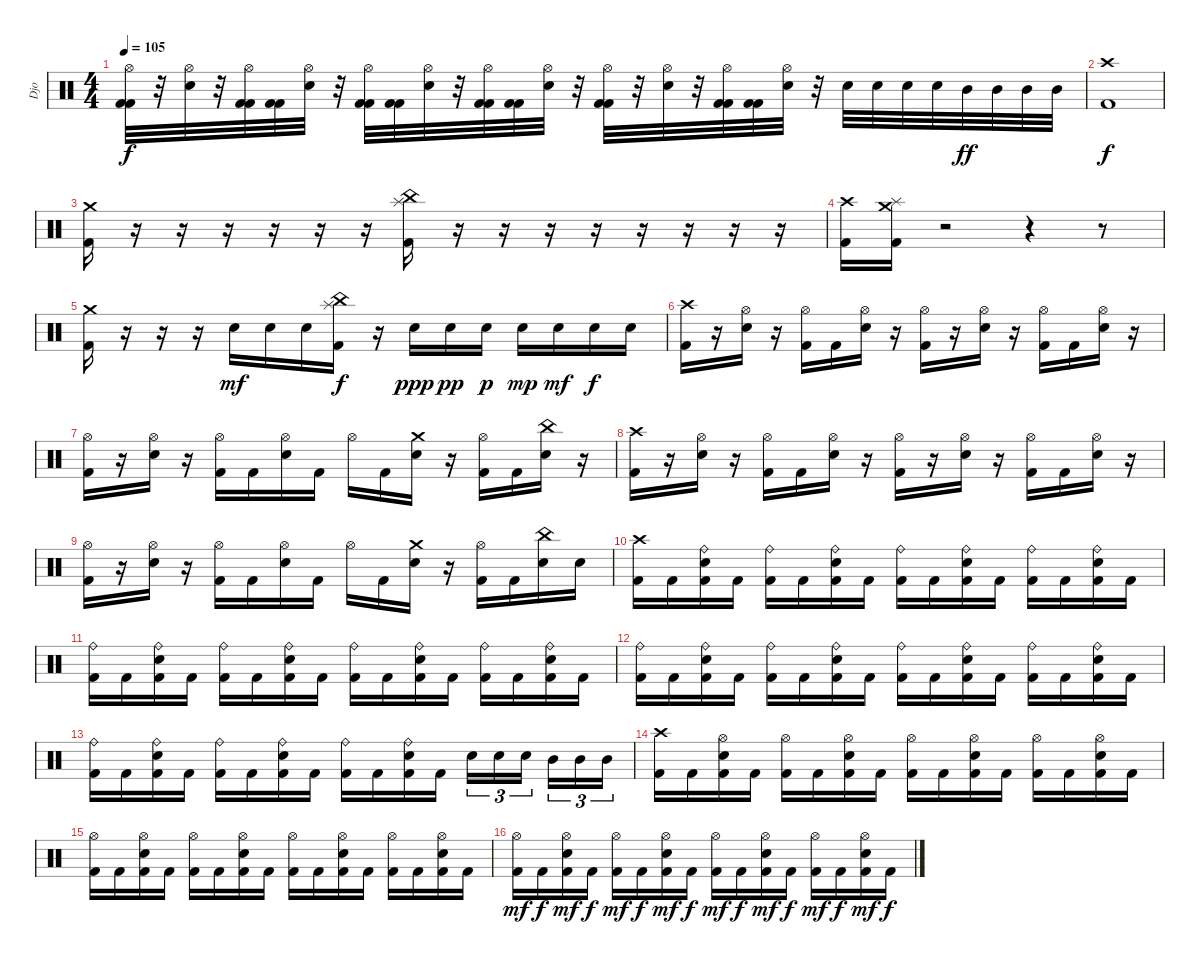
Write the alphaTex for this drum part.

\track ("Djo" "Djo") {instrument percussion}
\staff {score}
\articulation defaults
\ts (4 4)
\tempo 105
\clef neutral
\ks c
("Hi-Hat (open)" "Kick (hit) 2" "Kick (hit) 2").32{dy f} r.32 ("Hi-Hat (open)" "Snare (hit) 2").32 r.32 ("Hi-Hat (open)" "Kick (hit) 2" "Kick (hit) 2").32 ("Kick (hit) 2" "Kick (hit) 2").32 ("Hi-Hat (open)" "Snare (hit) 2").32 r.32 ("Hi-Hat (open)" "Kick (hit) 2" "Kick (hit) 2").32 ("Kick (hit) 2" "Kick (hit) 2").32 ("Hi-Hat (open)" "Snare (hit) 2").32 r.32 ("Hi-Hat (open)" "Kick (hit) 2" "Kick (hit) 2").32 ("Kick (hit) 2" "Kick (hit) 2").32 ("Hi-Hat (open)" "Snare (hit) 2").32 r.32 ("Hi-Hat (open)" "Kick (hit) 2" "Kick (hit) 2").32 r.32 ("Hi-Hat (open)" "Snare (hit) 2").32 r.32 ("Hi-Hat (open)" "Kick (hit) 2" "Kick (hit) 2").32 ("Kick (hit) 2" "Kick (hit) 2").32 ("Hi-Hat (open)" "Snare (hit) 2").32 r.32 "Snare (hit) 2".32 "Snare (hit) 2".32 "Snare (hit) 2".32 "Snare (hit) 2".32 "Mid Tom (hit)".32{dy ff} "Mid Tom (hit)".32 "Mid Tom (hit)".32 "Mid Tom (hit)".32 |
("Crash high (hit)" "Kick (hit) 2").1{dy f} |
("Crash medium (hit)" "Kick (hit) 2").16 r.16 r.16 r.16 r.16 r.16 r.16 ("China (hit)" "Splash (hit)" "Kick (hit) 2").16 r.16 r.16 r.16 r.16 r.16 r.16 r.16 r.16 |
("Crash high (hit)" "Kick (hit) 2").16 ("Crash medium (hit)" "Splash (hit)" "Kick (hit) 2").16 r.2 r.4 r.8 |
("Crash medium (hit)" "Kick (hit) 2").16 r.16 r.16 r.16 "Snare (hit) 2".16{dy mf} "Snare (hit) 2".16 "Snare (hit) 2".16 ("China (hit)" "Splash (hit)" "Kick (hit) 2").16{dy f} r.16 "Snare (hit) 2".16{dy ppp} "Snare (hit) 2".16{dy pp} "Snare (hit) 2".16{dy p} "Snare (hit) 2".16{dy mp} "Snare (hit) 2".16{dy mf} "Snare (hit) 2".16{dy f} "Snare (hit) 2".16 |
("Crash high (hit)" "Kick (hit) 2").16 r.16 ("Hi-Hat (open)" "Snare (hit) 2").16 r.16 ("Hi-Hat (open)" "Kick (hit) 2").16 "Kick (hit) 2".16 ("Hi-Hat (open)" "Snare (hit) 2").16 r.16 ("Hi-Hat (open)" "Kick (hit) 2").16 r.16 ("Hi-Hat (open)" "Snare (hit) 2").16 r.16 ("Hi-Hat (open)" "Kick (hit) 2").16 "Kick (hit) 2".16 ("Hi-Hat (open)" "Snare (hit) 2").16 r.16 |
("Hi-Hat (open)" "Kick (hit) 2").16 r.16 ("Hi-Hat (open)" "Snare (hit) 2").16 r.16 ("Hi-Hat (open)" "Kick (hit) 2").16 "Kick (hit) 2".16 ("Hi-Hat (open)" "Snare (hit) 2").16 "Kick (hit) 2".16 "Hi-Hat (open)".16 "Kick (hit) 2".16 ("Crash medium (hit)" "Snare (hit) 2").16 r.16 ("Hi-Hat (open)" "Kick (hit) 2").16 "Kick (hit) 2".16 ("China (hit)" "Snare (hit) 2").16 r.16 |
("Crash high (hit)" "Kick (hit) 2").16 r.16 ("Hi-Hat (open)" "Snare (hit) 2").16 r.16 ("Hi-Hat (open)" "Kick (hit) 2").16 "Kick (hit) 2".16 ("Hi-Hat (open)" "Snare (hit) 2").16 r.16 ("Hi-Hat (open)" "Kick (hit) 2").16 r.16 ("Hi-Hat (open)" "Snare (hit) 2").16 r.16 ("Hi-Hat (open)" "Kick (hit) 2").16 "Kick (hit) 2".16 ("Hi-Hat (open)" "Snare (hit) 2").16 r.16 |
("Hi-Hat (open)" "Kick (hit) 2").16 r.16 ("Hi-Hat (open)" "Snare (hit) 2").16 r.16 ("Hi-Hat (open)" "Kick (hit) 2").16 "Kick (hit) 2".16 ("Hi-Hat (open)" "Snare (hit) 2").16 "Kick (hit) 2".16 "Hi-Hat (open)".16 "Kick (hit) 2".16 ("Crash medium (hit)" "Snare (hit) 2").16 r.16 ("Hi-Hat (open)" "Kick (hit) 2").16 "Kick (hit) 2".16 ("China (hit)" "Snare (hit) 2").16 "Snare (hit) 2".16 |
("Crash high (hit)" "Kick (hit) 2").16 "Kick (hit) 2".16 ("Ride (bell)" "Snare (hit) 2" "Kick (hit) 2").16 "Kick (hit) 2".16 ("Ride (bell)" "Kick (hit) 2").16 "Kick (hit) 2".16 ("Ride (bell)" "Snare (hit) 2" "Kick (hit) 2").16 "Kick (hit) 2".16 ("Ride (bell)" "Kick (hit) 2").16 "Kick (hit) 2".16 ("Ride (bell)" "Snare (hit) 2" "Kick (hit) 2").16 "Kick (hit) 2".16 ("Ride (bell)" "Kick (hit) 2").16 "Kick (hit) 2".16 ("Ride (bell)" "Snare (hit) 2" "Kick (hit) 2").16 "Kick (hit) 2".16 |
("Ride (bell)" "Kick (hit) 2").16 "Kick (hit) 2".16 ("Ride (bell)" "Snare (hit) 2" "Kick (hit) 2").16 "Kick (hit) 2".16 ("Ride (bell)" "Kick (hit) 2").16 "Kick (hit) 2".16 ("Ride (bell)" "Snare (hit) 2" "Kick (hit) 2").16 "Kick (hit) 2".16 ("Ride (bell)" "Kick (hit) 2").16 "Kick (hit) 2".16 ("Ride (bell)" "Snare (hit) 2" "Kick (hit) 2").16 "Kick (hit) 2".16 ("Ride (bell)" "Kick (hit) 2").16 "Kick (hit) 2".16 ("Ride (bell)" "Snare (hit) 2" "Kick (hit) 2").16 "Kick (hit) 2".16 |
("Ride (bell)" "Kick (hit) 2").16 "Kick (hit) 2".16 ("Ride (bell)" "Snare (hit) 2" "Kick (hit) 2").16 "Kick (hit) 2".16 ("Ride (bell)" "Kick (hit) 2").16 "Kick (hit) 2".16 ("Ride (bell)" "Snare (hit) 2" "Kick (hit) 2").16 "Kick (hit) 2".16 ("Ride (bell)" "Kick (hit) 2").16 "Kick (hit) 2".16 ("Ride (bell)" "Snare (hit) 2" "Kick (hit) 2").16 "Kick (hit) 2".16 ("Ride (bell)" "Kick (hit) 2").16 "Kick (hit) 2".16 ("Ride (bell)" "Snare (hit) 2" "Kick (hit) 2").16 "Kick (hit) 2".16 |
("Ride (bell)" "Kick (hit) 2").16 "Kick (hit) 2".16 ("Ride (bell)" "Snare (hit) 2" "Kick (hit) 2").16 "Kick (hit) 2".16 ("Ride (bell)" "Kick (hit) 2").16 "Kick (hit) 2".16 ("Ride (bell)" "Snare (hit) 2" "Kick (hit) 2").16 "Kick (hit) 2".16 ("Ride (bell)" "Kick (hit) 2").16 "Kick (hit) 2".16 ("Ride (bell)" "Snare (hit) 2" "Kick (hit) 2").16 "Kick (hit) 2".16 "Snare (hit) 2".16{tu (3 2)} "Snare (hit) 2".16{tu (3 2)} "Snare (hit) 2".16{tu (3 2)} "Mid Tom (hit)".16{tu (3 2)} "Mid Tom (hit)".16{tu (3 2)} "Mid Tom (hit)".16{tu (3 2)} |
\section ("" "")
("Crash high (hit)" "Kick (hit) 2").16 "Kick (hit) 2".16 ("Hi-Hat (open)" "Snare (hit) 2" "Kick (hit) 2").16 "Kick (hit) 2".16 ("Hi-Hat (open)" "Kick (hit) 2").16 "Kick (hit) 2".16 ("Hi-Hat (open)" "Snare (hit) 2" "Kick (hit) 2").16 "Kick (hit) 2".16 ("Hi-Hat (open)" "Kick (hit) 2").16 "Kick (hit) 2".16 ("Hi-Hat (open)" "Snare (hit) 2" "Kick (hit) 2").16 "Kick (hit) 2".16 ("Hi-Hat (open)" "Kick (hit) 2").16 "Kick (hit) 2".16 ("Hi-Hat (open)" "Snare (hit) 2" "Kick (hit) 2").16 "Kick (hit) 2".16 |
("Hi-Hat (open)" "Kick (hit) 2").16 "Kick (hit) 2".16 ("Hi-Hat (open)" "Snare (hit) 2" "Kick (hit) 2").16 "Kick (hit) 2".16 ("Hi-Hat (open)" "Kick (hit) 2").16 "Kick (hit) 2".16 ("Hi-Hat (open)" "Snare (hit) 2" "Kick (hit) 2").16 "Kick (hit) 2".16 ("Hi-Hat (open)" "Kick (hit) 2").16 "Kick (hit) 2".16 ("Hi-Hat (open)" "Snare (hit) 2" "Kick (hit) 2").16 "Kick (hit) 2".16 ("Hi-Hat (open)" "Kick (hit) 2").16 "Kick (hit) 2".16 ("Hi-Hat (open)" "Snare (hit) 2" "Kick (hit) 2").16 "Kick (hit) 2".16 |
("Hi-Hat (open)" "Kick (hit) 2").16{dy mf} "Kick (hit) 2".16{dy f} ("Hi-Hat (open)" "Snare (hit) 2" "Kick (hit) 2").16{dy mf} "Kick (hit) 2".16{dy f} ("Hi-Hat (open)" "Kick (hit) 2").16{dy mf} "Kick (hit) 2".16{dy f} ("Hi-Hat (open)" "Snare (hit) 2" "Kick (hit) 2").16{dy mf} "Kick (hit) 2".16{dy f} ("Hi-Hat (open)" "Kick (hit) 2").16{dy mf} "Kick (hit) 2".16{dy f} ("Hi-Hat (open)" "Snare (hit) 2" "Kick (hit) 2").16{dy mf} "Kick (hit) 2".16{dy f} ("Hi-Hat (open)" "Kick (hit) 2").16{dy mf} "Kick (hit) 2".16{dy f} ("Hi-Hat (open)" "Snare (hit) 2" "Kick (hit) 2").16{dy mf} "Kick (hit) 2".16{dy f}
